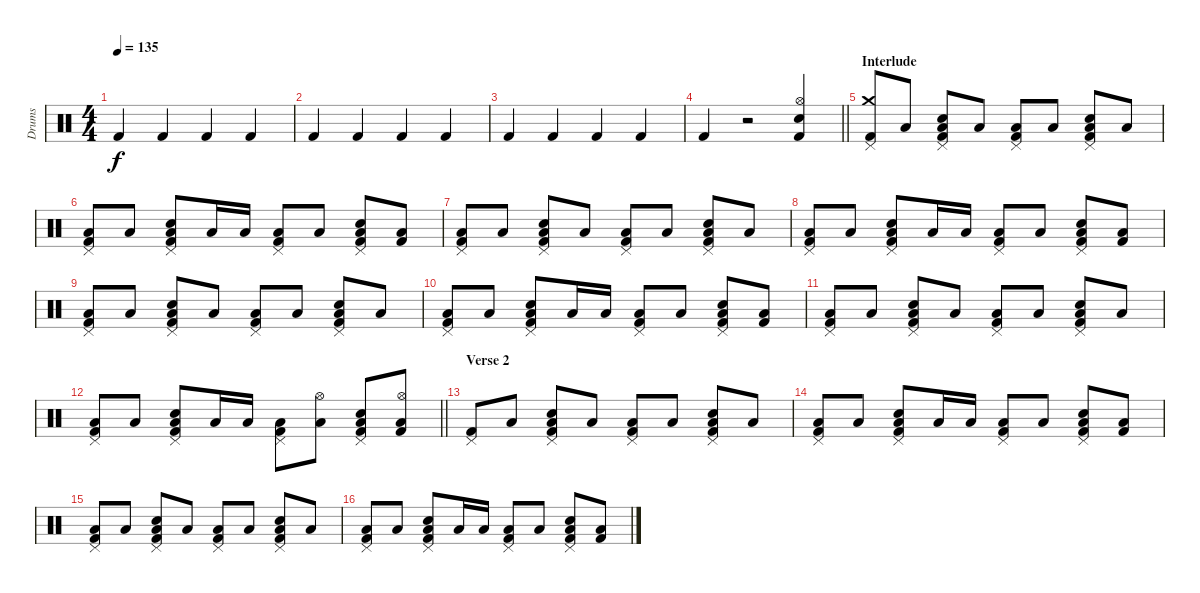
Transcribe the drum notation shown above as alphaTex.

\track ("Drums" "Drums") {instrument percussion}
\staff {score}
\articulation defaults
\ts (4 4)
\tempo 135
\clef neutral
\ks c "Kick (hit) 2".4{dy f} "Kick (hit) 2".4 "Kick (hit) 2".4 "Kick (hit) 2".4
|
"Kick (hit) 2".4 "Kick (hit) 2".4 "Kick (hit) 2".4 "Kick (hit) 2".4 |
"Kick (hit) 2".4 "Kick (hit) 2".4 "Kick (hit) 2".4 "Kick (hit) 2".4 |
\barLineRight lightlight "Kick (hit) 2".4
r.2 ("Hi-Hat (open)" "Electric Snare (hit)" "Kick (hit) 2").4 |
\section ("" "Interlude")
("Crash medium (hit)" "Pedal Hi-Hat (hit)" "Kick (hit) 2").8 "Low Floor Tom (hit)".8 ("Pedal Hi-Hat (hit)" "Low Floor Tom (hit)" "Electric Snare (hit)" "Kick (hit) 2").8 "Low Floor Tom (hit)".8 ("Pedal Hi-Hat (hit)" "Low Floor Tom (hit)" "Kick (hit) 2").8 "Low Floor Tom (hit)".8 ("Pedal Hi-Hat (hit)" "Low Floor Tom (hit)" "Electric Snare (hit)" "Kick (hit) 2").8 "Low Floor Tom (hit)".8 |
("Pedal Hi-Hat (hit)" "Low Floor Tom (hit)" "Kick (hit) 2").8 "Low Floor Tom (hit)".8 ("Pedal Hi-Hat (hit)" "Low Floor Tom (hit)" "Electric Snare (hit)" "Kick (hit) 2").8 "Low Floor Tom (hit)".16 "Low Floor Tom (hit)".16 ("Pedal Hi-Hat (hit)" "Low Floor Tom (hit)" "Kick (hit) 2").8 "Low Floor Tom (hit)".8 ("Pedal Hi-Hat (hit)" "Low Floor Tom (hit)" "Electric Snare (hit)" "Kick (hit) 2").8 ("Low Floor Tom (hit)" "Kick (hit) 2").8 |
("Pedal Hi-Hat (hit)" "Low Floor Tom (hit)" "Kick (hit) 2").8 "Low Floor Tom (hit)".8 ("Pedal Hi-Hat (hit)" "Low Floor Tom (hit)" "Electric Snare (hit)" "Kick (hit) 2").8 "Low Floor Tom (hit)".8 ("Pedal Hi-Hat (hit)" "Low Floor Tom (hit)" "Kick (hit) 2").8 "Low Floor Tom (hit)".8 ("Pedal Hi-Hat (hit)" "Low Floor Tom (hit)" "Electric Snare (hit)" "Kick (hit) 2").8 "Low Floor Tom (hit)".8 |
("Pedal Hi-Hat (hit)" "Low Floor Tom (hit)" "Kick (hit) 2").8 "Low Floor Tom (hit)".8 ("Pedal Hi-Hat (hit)" "Low Floor Tom (hit)" "Electric Snare (hit)" "Kick (hit) 2").8 "Low Floor Tom (hit)".16 "Low Floor Tom (hit)".16 ("Pedal Hi-Hat (hit)" "Low Floor Tom (hit)" "Kick (hit) 2").8 "Low Floor Tom (hit)".8 ("Pedal Hi-Hat (hit)" "Low Floor Tom (hit)" "Electric Snare (hit)" "Kick (hit) 2").8 ("Low Floor Tom (hit)" "Kick (hit) 2").8 |
("Pedal Hi-Hat (hit)" "Low Floor Tom (hit)" "Kick (hit) 2").8 "Low Floor Tom (hit)".8 ("Pedal Hi-Hat (hit)" "Low Floor Tom (hit)" "Electric Snare (hit)" "Kick (hit) 2").8 "Low Floor Tom (hit)".8 ("Pedal Hi-Hat (hit)" "Low Floor Tom (hit)" "Kick (hit) 2").8 "Low Floor Tom (hit)".8 ("Pedal Hi-Hat (hit)" "Low Floor Tom (hit)" "Electric Snare (hit)" "Kick (hit) 2").8 "Low Floor Tom (hit)".8 |
("Pedal Hi-Hat (hit)" "Low Floor Tom (hit)" "Kick (hit) 2").8 "Low Floor Tom (hit)".8 ("Pedal Hi-Hat (hit)" "Low Floor Tom (hit)" "Electric Snare (hit)" "Kick (hit) 2").8 "Low Floor Tom (hit)".16 "Low Floor Tom (hit)".16 ("Pedal Hi-Hat (hit)" "Low Floor Tom (hit)" "Kick (hit) 2").8 "Low Floor Tom (hit)".8 ("Pedal Hi-Hat (hit)" "Low Floor Tom (hit)" "Electric Snare (hit)" "Kick (hit) 2").8 ("Low Floor Tom (hit)" "Kick (hit) 2").8 |
("Pedal Hi-Hat (hit)" "Low Floor Tom (hit)" "Kick (hit) 2").8 "Low Floor Tom (hit)".8 ("Pedal Hi-Hat (hit)" "Low Floor Tom (hit)" "Electric Snare (hit)" "Kick (hit) 2").8 "Low Floor Tom (hit)".8 ("Pedal Hi-Hat (hit)" "Low Floor Tom (hit)" "Kick (hit) 2").8 "Low Floor Tom (hit)".8 ("Pedal Hi-Hat (hit)" "Low Floor Tom (hit)" "Electric Snare (hit)" "Kick (hit) 2").8 "Low Floor Tom (hit)".8 |
\barLineRight lightlight
("Pedal Hi-Hat (hit)" "Low Floor Tom (hit)" "Kick (hit) 2").8 "Low Floor Tom (hit)".8 ("Pedal Hi-Hat (hit)" "Low Floor Tom (hit)" "Electric Snare (hit)" "Kick (hit) 2").8 "Low Floor Tom (hit)".16 "Low Floor Tom (hit)".16 ("Pedal Hi-Hat (hit)" "Low Floor Tom (hit)" "Kick (hit) 2").8 ("Hi-Hat (open)" "Low Floor Tom (hit)").8 ("Pedal Hi-Hat (hit)" "Low Floor Tom (hit)" "Electric Snare (hit)" "Kick (hit) 2").8 ("Hi-Hat (open)" "Low Floor Tom (hit)" "Kick (hit) 2").8 |
\section ("" "Verse 2")
("Pedal Hi-Hat (hit)" "Kick (hit) 2").8 "Low Floor Tom (hit)".8 ("Pedal Hi-Hat (hit)" "Low Floor Tom (hit)" "Electric Snare (hit)" "Kick (hit) 2").8 "Low Floor Tom (hit)".8 ("Pedal Hi-Hat (hit)" "Low Floor Tom (hit)" "Kick (hit) 2").8 "Low Floor Tom (hit)".8 ("Pedal Hi-Hat (hit)" "Low Floor Tom (hit)" "Electric Snare (hit)" "Kick (hit) 2").8 "Low Floor Tom (hit)".8 |
("Pedal Hi-Hat (hit)" "Low Floor Tom (hit)" "Kick (hit) 2").8 "Low Floor Tom (hit)".8 ("Pedal Hi-Hat (hit)" "Low Floor Tom (hit)" "Electric Snare (hit)" "Kick (hit) 2").8 "Low Floor Tom (hit)".16 "Low Floor Tom (hit)".16 ("Pedal Hi-Hat (hit)" "Low Floor Tom (hit)" "Kick (hit) 2").8 "Low Floor Tom (hit)".8 ("Pedal Hi-Hat (hit)" "Low Floor Tom (hit)" "Electric Snare (hit)" "Kick (hit) 2").8 ("Low Floor Tom (hit)" "Kick (hit) 2").8 |
("Pedal Hi-Hat (hit)" "Low Floor Tom (hit)" "Kick (hit) 2").8 "Low Floor Tom (hit)".8 ("Pedal Hi-Hat (hit)" "Low Floor Tom (hit)" "Electric Snare (hit)" "Kick (hit) 2").8 "Low Floor Tom (hit)".8 ("Pedal Hi-Hat (hit)" "Low Floor Tom (hit)" "Kick (hit) 2").8 "Low Floor Tom (hit)".8 ("Pedal Hi-Hat (hit)" "Low Floor Tom (hit)" "Electric Snare (hit)" "Kick (hit) 2").8 "Low Floor Tom (hit)".8 |
("Pedal Hi-Hat (hit)" "Low Floor Tom (hit)" "Kick (hit) 2").8 "Low Floor Tom (hit)".8 ("Pedal Hi-Hat (hit)" "Low Floor Tom (hit)" "Electric Snare (hit)" "Kick (hit) 2").8 "Low Floor Tom (hit)".16 "Low Floor Tom (hit)".16 ("Pedal Hi-Hat (hit)" "Low Floor Tom (hit)" "Kick (hit) 2").8 "Low Floor Tom (hit)".8 ("Pedal Hi-Hat (hit)" "Low Floor Tom (hit)" "Electric Snare (hit)" "Kick (hit) 2").8 ("Low Floor Tom (hit)" "Kick (hit) 2").8
